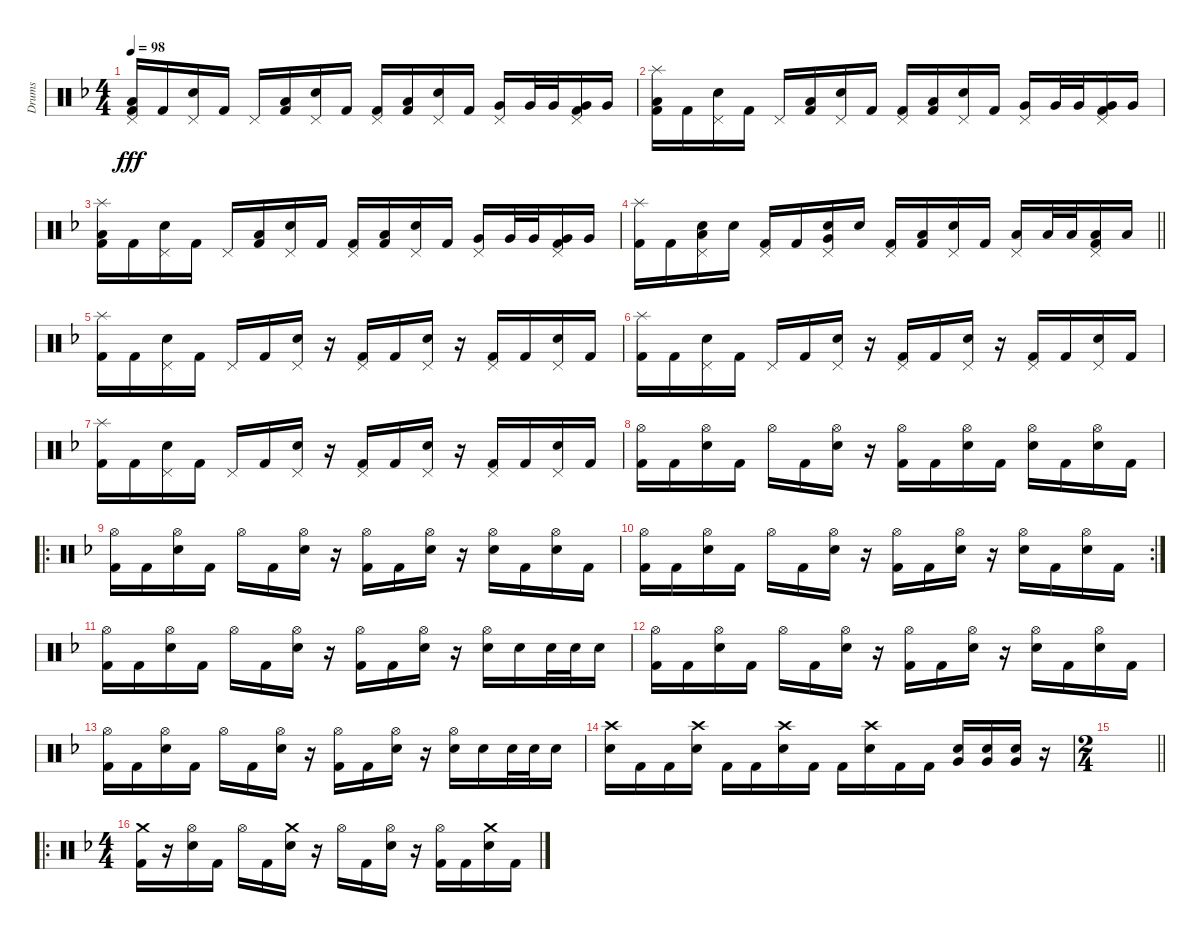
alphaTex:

\track ("Drums" "Drums") {instrument percussion}
\staff {score}
\articulation defaults
\ts (4 4)
\tempo 98
\clef neutral
\ks f
("Pedal Hi-Hat (hit)" "Low Tom (hit)" "Kick (hit) 2").16{dy fff} "Kick (hit) 2".16 ("Pedal Hi-Hat (hit)" "Snare (hit) 2").16 "Kick (hit) 2".16 "Pedal Hi-Hat (hit)".16 ("Low Tom (hit)" "Kick (hit) 2").16 ("Pedal Hi-Hat (hit)" "Snare (hit) 2").16 "Kick (hit) 2".16 ("Pedal Hi-Hat (hit)" "Kick (hit) 2").16 ("Low Tom (hit)" "Kick (hit) 2").16 ("Pedal Hi-Hat (hit)" "Snare (hit) 2").16 "Kick (hit) 2".16 ("Pedal Hi-Hat (hit)" "Very Low Tom (hit)").16 "Very Low Tom (hit)".32 "Very Low Tom (hit)".32 ("Pedal Hi-Hat (hit)" "Very Low Tom (hit)" "Kick (hit) 2").16 "Very Low Tom (hit)".16 |
("Splash (hit)" "Low Tom (hit)" "Kick (hit) 2").16 "Kick (hit) 2".16 ("Pedal Hi-Hat (hit)" "Snare (hit) 2").16 "Kick (hit) 2".16 "Pedal Hi-Hat (hit)".16 ("Low Tom (hit)" "Kick (hit) 2").16 ("Pedal Hi-Hat (hit)" "Snare (hit) 2").16 "Kick (hit) 2".16 ("Pedal Hi-Hat (hit)" "Kick (hit) 2").16 ("Low Tom (hit)" "Kick (hit) 2").16 ("Pedal Hi-Hat (hit)" "Snare (hit) 2").16 "Kick (hit) 2".16 ("Pedal Hi-Hat (hit)" "Very Low Tom (hit)").16 "Very Low Tom (hit)".32 "Very Low Tom (hit)".32 ("Pedal Hi-Hat (hit)" "Very Low Tom (hit)" "Kick (hit) 2").16 "Very Low Tom (hit)".16 |
("Splash (hit)" "Low Tom (hit)" "Kick (hit) 2").16 "Kick (hit) 2".16 ("Pedal Hi-Hat (hit)" "Snare (hit) 2").16 "Kick (hit) 2".16 "Pedal Hi-Hat (hit)".16 ("Low Tom (hit)" "Kick (hit) 2").16 ("Pedal Hi-Hat (hit)" "Snare (hit) 2").16 "Kick (hit) 2".16 ("Pedal Hi-Hat (hit)" "Kick (hit) 2").16 ("Low Tom (hit)" "Kick (hit) 2").16 ("Pedal Hi-Hat (hit)" "Snare (hit) 2").16 "Kick (hit) 2".16 ("Pedal Hi-Hat (hit)" "Very Low Tom (hit)").16 "Very Low Tom (hit)".32 "Very Low Tom (hit)".32 ("Pedal Hi-Hat (hit)" "Very Low Tom (hit)" "Kick (hit) 2").16 "Very Low Tom (hit)".16 |
\barLineRight lightlight
("Splash (hit)" "Kick (hit) 2").16 "Kick (hit) 2".16 ("Pedal Hi-Hat (hit)" "Low Tom (hit)" "Snare (hit) 2").16 "Snare (hit) 2".16 ("Pedal Hi-Hat (hit)" "Kick (hit) 2").16 "Kick (hit) 2".16 ("Pedal Hi-Hat (hit)" "Very Low Tom (hit)" "Snare (hit) 2").16 "Snare (hit) 2".16 ("Pedal Hi-Hat (hit)" "Kick (hit) 2").16 ("Low Tom (hit)" "Kick (hit) 2").16 ("Pedal Hi-Hat (hit)" "Snare (hit) 2").16 "Kick (hit) 2".16 ("Pedal Hi-Hat (hit)" "Low Tom (hit)").16 "Low Tom (hit)".32 "Low Tom (hit)".32 ("Pedal Hi-Hat (hit)" "Low Tom (hit)" "Kick (hit) 2").16 "Low Tom (hit)".16 |
("Splash (hit)" "Kick (hit) 2").16 "Kick (hit) 2".16 ("Pedal Hi-Hat (hit)" "Snare (hit) 2").16 "Kick (hit) 2".16 "Pedal Hi-Hat (hit)".16 "Kick (hit) 2".16 ("Pedal Hi-Hat (hit)" "Snare (hit) 2").16 r.16 ("Pedal Hi-Hat (hit)" "Kick (hit) 2").16 "Kick (hit) 2".16 ("Pedal Hi-Hat (hit)" "Snare (hit) 2").16 r.16 ("Pedal Hi-Hat (hit)" "Kick (hit) 2").16 "Kick (hit) 2".16 ("Pedal Hi-Hat (hit)" "Snare (hit) 2").16 "Kick (hit) 2".16 |
("Splash (hit)" "Kick (hit) 2").16 "Kick (hit) 2".16 ("Pedal Hi-Hat (hit)" "Snare (hit) 2").16 "Kick (hit) 2".16 "Pedal Hi-Hat (hit)".16 "Kick (hit) 2".16 ("Pedal Hi-Hat (hit)" "Snare (hit) 2").16 r.16 ("Pedal Hi-Hat (hit)" "Kick (hit) 2").16 "Kick (hit) 2".16 ("Pedal Hi-Hat (hit)" "Snare (hit) 2").16 r.16 ("Pedal Hi-Hat (hit)" "Kick (hit) 2").16 "Kick (hit) 2".16 ("Pedal Hi-Hat (hit)" "Snare (hit) 2").16 "Kick (hit) 2".16 |
("Splash (hit)" "Kick (hit) 2").16 "Kick (hit) 2".16 ("Pedal Hi-Hat (hit)" "Snare (hit) 2").16 "Kick (hit) 2".16 "Pedal Hi-Hat (hit)".16 "Kick (hit) 2".16 ("Pedal Hi-Hat (hit)" "Snare (hit) 2").16 r.16 ("Pedal Hi-Hat (hit)" "Kick (hit) 2").16 "Kick (hit) 2".16 ("Pedal Hi-Hat (hit)" "Snare (hit) 2").16 r.16 ("Pedal Hi-Hat (hit)" "Kick (hit) 2").16 "Kick (hit) 2".16 ("Pedal Hi-Hat (hit)" "Snare (hit) 2").16 "Kick (hit) 2".16 |
("Hi-Hat (open)" "Kick (hit) 2").16 "Kick (hit) 2".16 ("Hi-Hat (open)" "Snare (hit) 2").16 "Kick (hit) 2".16 "Hi-Hat (open)".16 "Kick (hit) 2".16 ("Hi-Hat (open)" "Snare (hit) 2").16 r.16 ("Hi-Hat (open)" "Kick (hit) 2").16 "Kick (hit) 2".16 ("Hi-Hat (open)" "Snare (hit) 2").16 "Kick (hit) 2".16 ("Hi-Hat (open)" "Snare (hit) 2").16 "Kick (hit) 2".16 ("Hi-Hat (open)" "Snare (hit) 2").16 "Kick (hit) 2".16 |
\ro
("Hi-Hat (open)" "Kick (hit) 2").16 "Kick (hit) 2".16 ("Hi-Hat (open)" "Snare (hit) 2").16 "Kick (hit) 2".16 "Hi-Hat (open)".16 "Kick (hit) 2".16 ("Hi-Hat (open)" "Snare (hit) 2").16 r.16 ("Hi-Hat (open)" "Kick (hit) 2").16 "Kick (hit) 2".16 ("Hi-Hat (open)" "Snare (hit) 2").16 r.16 ("Hi-Hat (open)" "Snare (hit) 2").16 "Kick (hit) 2".16 ("Hi-Hat (open)" "Snare (hit) 2").16 "Kick (hit) 2".16 |
\rc 2
("Hi-Hat (open)" "Kick (hit) 2").16 "Kick (hit) 2".16 ("Hi-Hat (open)" "Snare (hit) 2").16 "Kick (hit) 2".16 "Hi-Hat (open)".16 "Kick (hit) 2".16 ("Hi-Hat (open)" "Snare (hit) 2").16 r.16 ("Hi-Hat (open)" "Kick (hit) 2").16 "Kick (hit) 2".16 ("Hi-Hat (open)" "Snare (hit) 2").16 r.16 ("Hi-Hat (open)" "Snare (hit) 2").16 "Kick (hit) 2".16 ("Hi-Hat (open)" "Snare (hit) 2").16 "Kick (hit) 2".16 |
("Hi-Hat (open)" "Kick (hit) 2").16 "Kick (hit) 2".16 ("Hi-Hat (open)" "Snare (hit) 2").16 "Kick (hit) 2".16 "Hi-Hat (open)".16 "Kick (hit) 2".16 ("Hi-Hat (open)" "Snare (hit) 2").16 r.16 ("Hi-Hat (open)" "Kick (hit) 2").16 "Kick (hit) 2".16 ("Hi-Hat (open)" "Snare (hit) 2").16 r.16 ("Hi-Hat (open)" "Snare (hit) 2").16 "Snare (hit) 2".16 "Snare (hit) 2".32 "Snare (hit) 2".32 "Snare (hit) 2".16 |
("Hi-Hat (open)" "Kick (hit) 2").16 "Kick (hit) 2".16 ("Hi-Hat (open)" "Snare (hit) 2").16 "Kick (hit) 2".16 "Hi-Hat (open)".16 "Kick (hit) 2".16 ("Hi-Hat (open)" "Snare (hit) 2").16 r.16 ("Hi-Hat (open)" "Kick (hit) 2").16 "Kick (hit) 2".16 ("Hi-Hat (open)" "Snare (hit) 2").16 r.16 ("Hi-Hat (open)" "Snare (hit) 2").16 "Kick (hit) 2".16 ("Hi-Hat (open)" "Snare (hit) 2").16 "Kick (hit) 2".16 |
("Hi-Hat (open)" "Kick (hit) 2").16 "Kick (hit) 2".16 ("Hi-Hat (open)" "Snare (hit) 2").16 "Kick (hit) 2".16 "Hi-Hat (open)".16 "Kick (hit) 2".16 ("Hi-Hat (open)" "Snare (hit) 2").16 r.16 ("Hi-Hat (open)" "Kick (hit) 2").16 "Kick (hit) 2".16 ("Hi-Hat (open)" "Snare (hit) 2").16 r.16 ("Hi-Hat (open)" "Snare (hit) 2").16 "Snare (hit) 2".16 "Snare (hit) 2".32 "Snare (hit) 2".32 "Snare (hit) 2".16 |
("Crash high (hit)" "Snare (hit) 2").16 "Kick (hit) 2".16 "Kick (hit) 2".16 ("Crash high (hit)" "Snare (hit) 2").16 "Kick (hit) 2".16 "Kick (hit) 2".16 ("Crash high (hit)" "Snare (hit) 2").16 "Kick (hit) 2".16 "Kick (hit) 2".16 ("Crash high (hit)" "Snare (hit) 2").16 "Kick (hit) 2".16 "Kick (hit) 2".16 ("Very Low Tom (hit)" "Snare (hit) 2").16 ("Very Low Tom (hit)" "Snare (hit) 2").16 ("Very Low Tom (hit)" "Snare (hit) 2").16 r.16 |
\ts (2 4)
\barLineRight lightlight
|
\ro
\ts (4 4)
("Crash medium (hit)" "Kick (hit) 2").16 r.16 ("Hi-Hat (open)" "Snare (hit) 2").16 "Kick (hit) 2".16 "Hi-Hat (open)".16 "Kick (hit) 2".16 ("Crash medium (hit)" "Snare (hit) 2").16 r.16 "Hi-Hat (open)".16 "Kick (hit) 2".16 ("Hi-Hat (open)" "Snare (hit) 2").16 r.16 ("Hi-Hat (open)" "Kick (hit) 2").16 "Kick (hit) 2".16 ("Crash medium (hit)" "Snare (hit) 2").16 "Kick (hit) 2".16
